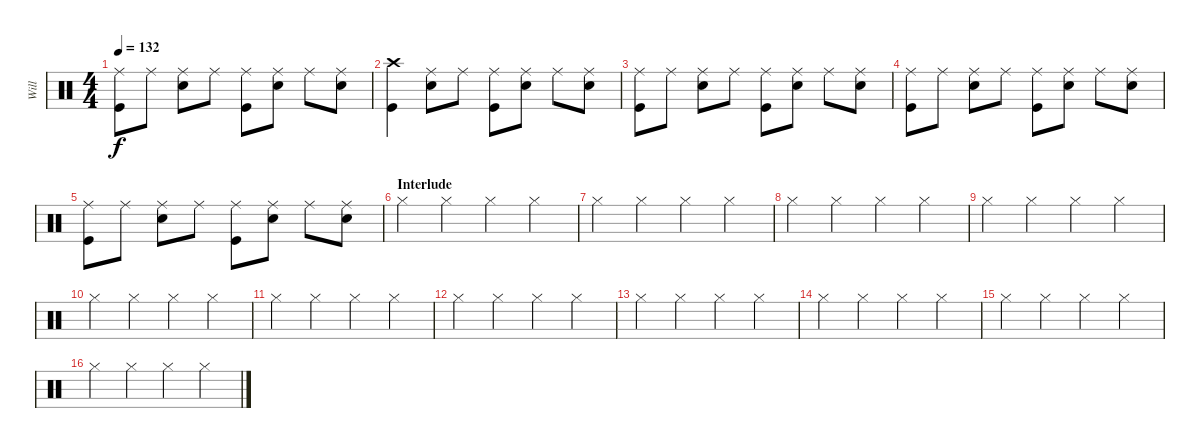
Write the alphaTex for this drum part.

\track ("Will" "Will") {instrument percussion}
\staff {score}
\articulation defaults
\ts (4 4)
\tempo 132
\clef neutral
\ks c
("Ride (middle)" "Kick (hit)").8{dy f} "Ride (middle)".8 ("Ride (middle)" "Snare (hit) 2").8 "Ride (middle)".8 ("Ride (middle)" "Kick (hit)").8 ("Ride (middle)" "Snare (hit) 2").8 "Ride (middle)".8 ("Ride (middle)" "Snare (hit) 2").8 |
("Crash high (hit)" "Kick (hit)").4 ("Ride (middle)" "Snare (hit) 2").8 "Ride (middle)".8 ("Ride (middle)" "Kick (hit)").8 ("Ride (middle)" "Snare (hit) 2").8 "Ride (middle)".8 ("Ride (middle)" "Snare (hit) 2").8 |
("Ride (middle)" "Kick (hit)").8 "Ride (middle)".8 ("Ride (middle)" "Snare (hit) 2").8 "Ride (middle)".8 ("Ride (middle)" "Kick (hit)").8 ("Ride (middle)" "Snare (hit) 2").8 "Ride (middle)".8 ("Ride (middle)" "Snare (hit) 2").8 |
("Ride (middle)" "Kick (hit)").8 "Ride (middle)".8 ("Ride (middle)" "Snare (hit) 2").8 "Ride (middle)".8 ("Ride (middle)" "Kick (hit)").8 ("Ride (middle)" "Snare (hit) 2").8 "Ride (middle)".8 ("Ride (middle)" "Snare (hit) 2").8 |
("Ride (middle)" "Kick (hit)").8 "Ride (middle)".8 ("Ride (middle)" "Snare (hit) 2").8 "Ride (middle)".8 ("Ride (middle)" "Kick (hit)").8 ("Ride (middle)" "Snare (hit) 2").8 "Ride (middle)".8 ("Ride (middle)" "Snare (hit) 2").8 |
\section ("" "Interlude")
"Hi-Hat (closed)".4 "Hi-Hat (closed)".4 "Hi-Hat (closed)".4 "Hi-Hat (closed)".4 |
"Hi-Hat (closed)".4 "Hi-Hat (closed)".4 "Hi-Hat (closed)".4 "Hi-Hat (closed)".4 |
"Hi-Hat (closed)".4 "Hi-Hat (closed)".4 "Hi-Hat (closed)".4 "Hi-Hat (closed)".4 |
"Hi-Hat (closed)".4 "Hi-Hat (closed)".4 "Hi-Hat (closed)".4 "Hi-Hat (closed)".4 |
"Hi-Hat (closed)".4 "Hi-Hat (closed)".4 "Hi-Hat (closed)".4 "Hi-Hat (closed)".4 |
"Hi-Hat (closed)".4 "Hi-Hat (closed)".4 "Hi-Hat (closed)".4 "Hi-Hat (closed)".4 |
"Hi-Hat (closed)".4 "Hi-Hat (closed)".4 "Hi-Hat (closed)".4 "Hi-Hat (closed)".4 |
"Hi-Hat (closed)".4 "Hi-Hat (closed)".4 "Hi-Hat (closed)".4 "Hi-Hat (closed)".4 |
"Hi-Hat (closed)".4 "Hi-Hat (closed)".4 "Hi-Hat (closed)".4 "Hi-Hat (closed)".4 |
"Hi-Hat (closed)".4 "Hi-Hat (closed)".4 "Hi-Hat (closed)".4 "Hi-Hat (closed)".4 |
"Hi-Hat (closed)".4 "Hi-Hat (closed)".4 "Hi-Hat (closed)".4 "Hi-Hat (closed)".4
